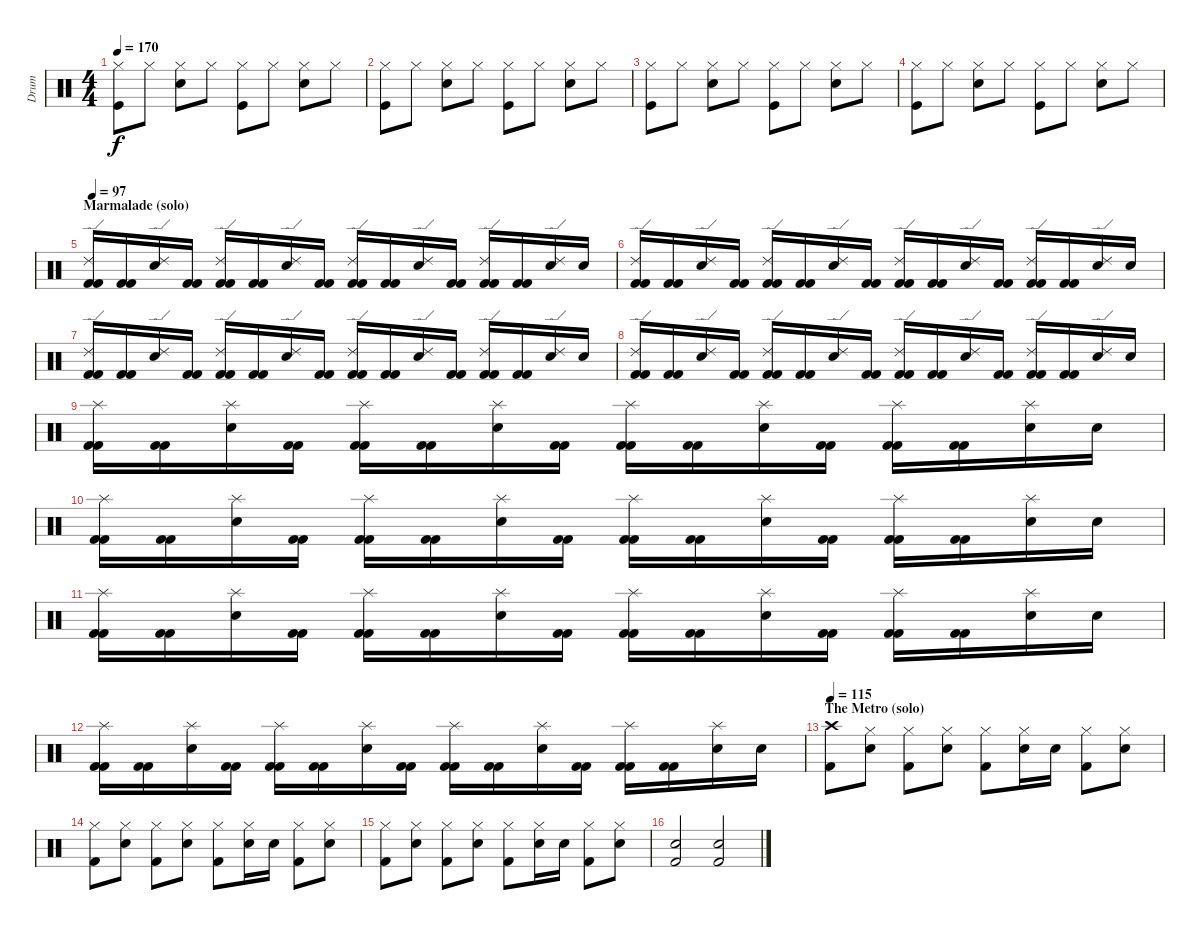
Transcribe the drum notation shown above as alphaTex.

\track ("Drum" "Drum") {instrument percussion}
\staff {score}
\articulation defaults
\ts (4 4)
\tempo 170
\clef neutral
\ks c
("Hi-Hat (closed)" "Kick (hit)").8{dy f} "Hi-Hat (closed)".8 ("Hi-Hat (closed)" "Electric Snare (hit)").8 "Hi-Hat (closed)".8 ("Hi-Hat (closed)" "Kick (hit)").8 "Hi-Hat (closed)".8 ("Hi-Hat (closed)" "Electric Snare (hit)").8 "Hi-Hat (closed)".8 |
("Hi-Hat (closed)" "Kick (hit)").8 "Hi-Hat (closed)".8 ("Hi-Hat (closed)" "Electric Snare (hit)").8 "Hi-Hat (closed)".8 ("Hi-Hat (closed)" "Kick (hit)").8 "Hi-Hat (closed)".8 ("Hi-Hat (closed)" "Electric Snare (hit)").8 "Hi-Hat (closed)".8 |
("Hi-Hat (closed)" "Kick (hit)").8 "Hi-Hat (closed)".8 ("Hi-Hat (closed)" "Electric Snare (hit)").8 "Hi-Hat (closed)".8 ("Hi-Hat (closed)" "Kick (hit)").8 "Hi-Hat (closed)".8 ("Hi-Hat (closed)" "Electric Snare (hit)").8 "Hi-Hat (closed)".8 |
("Hi-Hat (closed)" "Kick (hit)").8 "Hi-Hat (closed)".8 ("Hi-Hat (closed)" "Electric Snare (hit)").8 "Hi-Hat (closed)".8 ("Hi-Hat (closed)" "Kick (hit)").8 "Hi-Hat (closed)".8 ("Hi-Hat (closed)" "Electric Snare (hit)").8 "Hi-Hat (closed)".8 |
\section ("" "Marmalade (solo)")
\tempo 97
("Ride (edge) 2" "Kick (hit) 2" "Kick (hit) 2").16 ("Kick (hit) 2" "Kick (hit) 2").16 ("Ride (edge) 2" "Snare (hit) 2").16 ("Kick (hit) 2" "Kick (hit) 2").16 ("Ride (edge) 2" "Kick (hit) 2" "Kick (hit) 2").16 ("Kick (hit) 2" "Kick (hit) 2").16 ("Ride (edge) 2" "Snare (hit) 2").16 ("Kick (hit) 2" "Kick (hit) 2").16 ("Ride (edge) 2" "Kick (hit) 2" "Kick (hit) 2").16 ("Kick (hit) 2" "Kick (hit) 2").16 ("Ride (edge) 2" "Snare (hit) 2").16 ("Kick (hit) 2" "Kick (hit) 2").16 ("Ride (edge) 2" "Kick (hit) 2" "Kick (hit) 2").16 ("Kick (hit) 2" "Kick (hit) 2").16 ("Ride (edge) 2" "Snare (hit) 2").16 "Snare (hit) 2".16 |
("Ride (edge) 2" "Kick (hit) 2" "Kick (hit) 2").16 ("Kick (hit) 2" "Kick (hit) 2").16 ("Ride (edge) 2" "Snare (hit) 2").16 ("Kick (hit) 2" "Kick (hit) 2").16 ("Ride (edge) 2" "Kick (hit) 2" "Kick (hit) 2").16 ("Kick (hit) 2" "Kick (hit) 2").16 ("Ride (edge) 2" "Snare (hit) 2").16 ("Kick (hit) 2" "Kick (hit) 2").16 ("Ride (edge) 2" "Kick (hit) 2" "Kick (hit) 2").16 ("Kick (hit) 2" "Kick (hit) 2").16 ("Ride (edge) 2" "Snare (hit) 2").16 ("Kick (hit) 2" "Kick (hit) 2").16 ("Ride (edge) 2" "Kick (hit) 2" "Kick (hit) 2").16 ("Kick (hit) 2" "Kick (hit) 2").16 ("Ride (edge) 2" "Snare (hit) 2").16 "Snare (hit) 2".16 |
("Ride (edge) 2" "Kick (hit) 2" "Kick (hit) 2").16 ("Kick (hit) 2" "Kick (hit) 2").16 ("Ride (edge) 2" "Snare (hit) 2").16 ("Kick (hit) 2" "Kick (hit) 2").16 ("Ride (edge) 2" "Kick (hit) 2" "Kick (hit) 2").16 ("Kick (hit) 2" "Kick (hit) 2").16 ("Ride (edge) 2" "Snare (hit) 2").16 ("Kick (hit) 2" "Kick (hit) 2").16 ("Ride (edge) 2" "Kick (hit) 2" "Kick (hit) 2").16 ("Kick (hit) 2" "Kick (hit) 2").16 ("Ride (edge) 2" "Snare (hit) 2").16 ("Kick (hit) 2" "Kick (hit) 2").16 ("Ride (edge) 2" "Kick (hit) 2" "Kick (hit) 2").16 ("Kick (hit) 2" "Kick (hit) 2").16 ("Ride (edge) 2" "Snare (hit) 2").16 "Snare (hit) 2".16 |
("Ride (edge) 2" "Kick (hit) 2" "Kick (hit) 2").16 ("Kick (hit) 2" "Kick (hit) 2").16 ("Ride (edge) 2" "Snare (hit) 2").16 ("Kick (hit) 2" "Kick (hit) 2").16 ("Ride (edge) 2" "Kick (hit) 2" "Kick (hit) 2").16 ("Kick (hit) 2" "Kick (hit) 2").16 ("Ride (edge) 2" "Snare (hit) 2").16 ("Kick (hit) 2" "Kick (hit) 2").16 ("Ride (edge) 2" "Kick (hit) 2" "Kick (hit) 2").16 ("Kick (hit) 2" "Kick (hit) 2").16 ("Ride (edge) 2" "Snare (hit) 2").16 ("Kick (hit) 2" "Kick (hit) 2").16 ("Ride (edge) 2" "Kick (hit) 2" "Kick (hit) 2").16 ("Kick (hit) 2" "Kick (hit) 2").16 ("Ride (edge) 2" "Snare (hit) 2").16 "Snare (hit) 2".16 |
("Splash (hit)" "Kick (hit) 2" "Kick (hit) 2").16 ("Kick (hit) 2" "Kick (hit) 2").16 ("Splash (hit)" "Snare (hit) 2").16 ("Kick (hit) 2" "Kick (hit) 2").16 ("Splash (hit)" "Kick (hit) 2" "Kick (hit) 2").16 ("Kick (hit) 2" "Kick (hit) 2").16 ("Splash (hit)" "Snare (hit) 2").16 ("Kick (hit) 2" "Kick (hit) 2").16 ("Splash (hit)" "Kick (hit) 2" "Kick (hit) 2").16 ("Kick (hit) 2" "Kick (hit) 2").16 ("Splash (hit)" "Snare (hit) 2").16 ("Kick (hit) 2" "Kick (hit) 2").16 ("Splash (hit)" "Kick (hit) 2" "Kick (hit) 2").16 ("Kick (hit) 2" "Kick (hit) 2").16 ("Splash (hit)" "Snare (hit) 2").16 "Snare (hit) 2".16 |
("Splash (hit)" "Kick (hit) 2" "Kick (hit) 2").16 ("Kick (hit) 2" "Kick (hit) 2").16 ("Splash (hit)" "Snare (hit) 2").16 ("Kick (hit) 2" "Kick (hit) 2").16 ("Splash (hit)" "Kick (hit) 2" "Kick (hit) 2").16 ("Kick (hit) 2" "Kick (hit) 2").16 ("Splash (hit)" "Snare (hit) 2").16 ("Kick (hit) 2" "Kick (hit) 2").16 ("Splash (hit)" "Kick (hit) 2" "Kick (hit) 2").16 ("Kick (hit) 2" "Kick (hit) 2").16 ("Splash (hit)" "Snare (hit) 2").16 ("Kick (hit) 2" "Kick (hit) 2").16 ("Splash (hit)" "Kick (hit) 2" "Kick (hit) 2").16 ("Kick (hit) 2" "Kick (hit) 2").16 ("Splash (hit)" "Snare (hit) 2").16 "Snare (hit) 2".16 |
("Splash (hit)" "Kick (hit) 2" "Kick (hit) 2").16 ("Kick (hit) 2" "Kick (hit) 2").16 ("Splash (hit)" "Snare (hit) 2").16 ("Kick (hit) 2" "Kick (hit) 2").16 ("Splash (hit)" "Kick (hit) 2" "Kick (hit) 2").16 ("Kick (hit) 2" "Kick (hit) 2").16 ("Splash (hit)" "Snare (hit) 2").16 ("Kick (hit) 2" "Kick (hit) 2").16 ("Splash (hit)" "Kick (hit) 2" "Kick (hit) 2").16 ("Kick (hit) 2" "Kick (hit) 2").16 ("Splash (hit)" "Snare (hit) 2").16 ("Kick (hit) 2" "Kick (hit) 2").16 ("Splash (hit)" "Kick (hit) 2" "Kick (hit) 2").16 ("Kick (hit) 2" "Kick (hit) 2").16 ("Splash (hit)" "Snare (hit) 2").16 "Snare (hit) 2".16 |
("Splash (hit)" "Kick (hit) 2" "Kick (hit) 2").16 ("Kick (hit) 2" "Kick (hit) 2").16 ("Splash (hit)" "Snare (hit) 2").16 ("Kick (hit) 2" "Kick (hit) 2").16 ("Splash (hit)" "Kick (hit) 2" "Kick (hit) 2").16 ("Kick (hit) 2" "Kick (hit) 2").16 ("Splash (hit)" "Snare (hit) 2").16 ("Kick (hit) 2" "Kick (hit) 2").16 ("Splash (hit)" "Kick (hit) 2" "Kick (hit) 2").16 ("Kick (hit) 2" "Kick (hit) 2").16 ("Splash (hit)" "Snare (hit) 2").16 ("Kick (hit) 2" "Kick (hit) 2").16 ("Splash (hit)" "Kick (hit) 2" "Kick (hit) 2").16 ("Kick (hit) 2" "Kick (hit) 2").16 ("Splash (hit)" "Snare (hit) 2").16 "Snare (hit) 2".16 |
\section ("" "The Metro (solo)")
\tempo 115
("Crash high (hit)" "Kick (hit) 2").8 ("Hi-Hat (closed)" "Electric Snare (hit)").8 ("Hi-Hat (closed)" "Kick (hit) 2").8 ("Hi-Hat (closed)" "Electric Snare (hit)").8 ("Hi-Hat (closed)" "Kick (hit) 2").8 ("Hi-Hat (closed)" "Electric Snare (hit)").16 "Electric Snare (hit)".16 ("Hi-Hat (closed)" "Kick (hit) 2").8 ("Hi-Hat (closed)" "Electric Snare (hit)").8 |
("Hi-Hat (closed)" "Kick (hit) 2").8 ("Hi-Hat (closed)" "Electric Snare (hit)").8 ("Hi-Hat (closed)" "Kick (hit) 2").8 ("Hi-Hat (closed)" "Electric Snare (hit)").8 ("Hi-Hat (closed)" "Kick (hit) 2").8 ("Hi-Hat (closed)" "Electric Snare (hit)").16 "Electric Snare (hit)".16 ("Hi-Hat (closed)" "Kick (hit) 2").8 ("Hi-Hat (closed)" "Electric Snare (hit)").8 |
("Hi-Hat (closed)" "Kick (hit) 2").8 ("Hi-Hat (closed)" "Electric Snare (hit)").8 ("Hi-Hat (closed)" "Kick (hit) 2").8 ("Hi-Hat (closed)" "Electric Snare (hit)").8 ("Hi-Hat (closed)" "Kick (hit) 2").8 ("Hi-Hat (closed)" "Electric Snare (hit)").16 "Electric Snare (hit)".16 ("Hi-Hat (closed)" "Kick (hit) 2").8 ("Hi-Hat (closed)" "Electric Snare (hit)").8 |
("Electric Snare (hit)" "Kick (hit) 2").2 ("Electric Snare (hit)" "Kick (hit) 2").2
